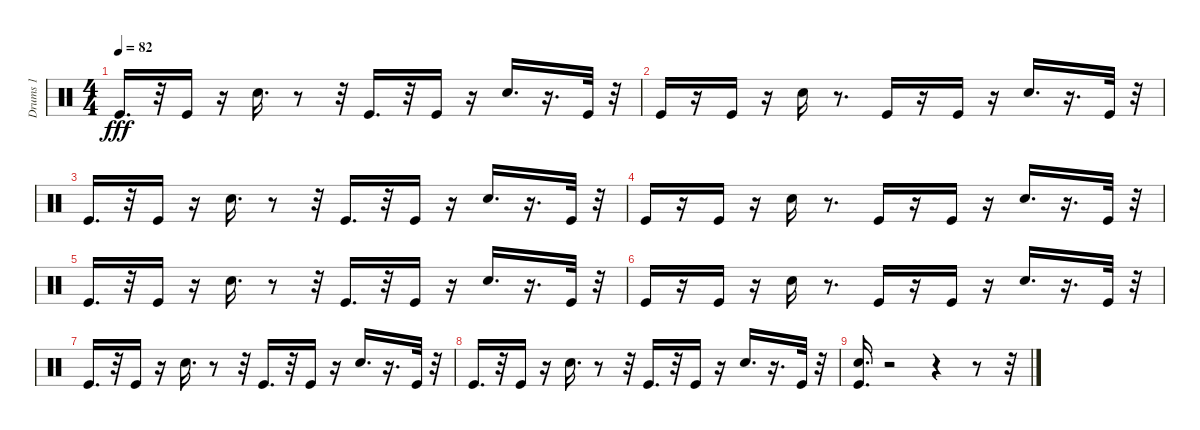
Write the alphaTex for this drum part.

\track ("Drums 1" "Drums 1") {instrument percussion}
\staff {score}
\articulation defaults
\ts (4 4)
\tempo 82
\clef neutral
\ks c "Kick (hit)".16{d dy fff}
r.32 "Kick (hit)".16 r.16 "Electric Snare (hit)".16{d} r.8 r.32 "Kick (hit)".16{d} r.32 "Kick (hit)".16 r.16 "Electric Snare (hit)".16{d} r.16{d} "Kick (hit)".32 r.32 |
"Kick (hit)".16 r.16 "Kick (hit)".16 r.16 "Electric Snare (hit)".16 r.8{d} "Kick (hit)".16 r.16 "Kick (hit)".16 r.16 "Electric Snare (hit)".16{d} r.16{d} "Kick (hit)".32 r.32 |
"Kick (hit)".16{d} r.32 "Kick (hit)".16 r.16 "Electric Snare (hit)".16{d} r.8 r.32 "Kick (hit)".16{d} r.32 "Kick (hit)".16 r.16 "Electric Snare (hit)".16{d} r.16{d} "Kick (hit)".32 r.32 |
"Kick (hit)".16 r.16 "Kick (hit)".16 r.16 "Electric Snare (hit)".16 r.8{d} "Kick (hit)".16 r.16 "Kick (hit)".16 r.16 "Electric Snare (hit)".16{d} r.16{d} "Kick (hit)".32 r.32 |
"Kick (hit)".16{d} r.32 "Kick (hit)".16 r.16 "Electric Snare (hit)".16{d} r.8 r.32 "Kick (hit)".16{d} r.32 "Kick (hit)".16 r.16 "Electric Snare (hit)".16{d} r.16{d} "Kick (hit)".32 r.32 |
"Kick (hit)".16 r.16 "Kick (hit)".16 r.16 "Electric Snare (hit)".16 r.8{d} "Kick (hit)".16 r.16 "Kick (hit)".16 r.16 "Electric Snare (hit)".16{d} r.16{d} "Kick (hit)".32 r.32 |
"Kick (hit)".16{d} r.32 "Kick (hit)".16 r.16 "Electric Snare (hit)".16{d} r.8 r.32 "Kick (hit)".16{d} r.32 "Kick (hit)".16 r.16 "Electric Snare (hit)".16{d} r.16{d} "Kick (hit)".32 r.32 |
"Kick (hit)".16{d} r.32 "Kick (hit)".16 r.16 "Electric Snare (hit)".16{d} r.8 r.32 "Kick (hit)".16{d} r.32 "Kick (hit)".16 r.16 "Electric Snare (hit)".16{d} r.16{d} "Kick (hit)".32 r.32 |
("Electric Snare (hit)" "Kick (hit)").16{d} r.2 r.4 r.8 r.32
